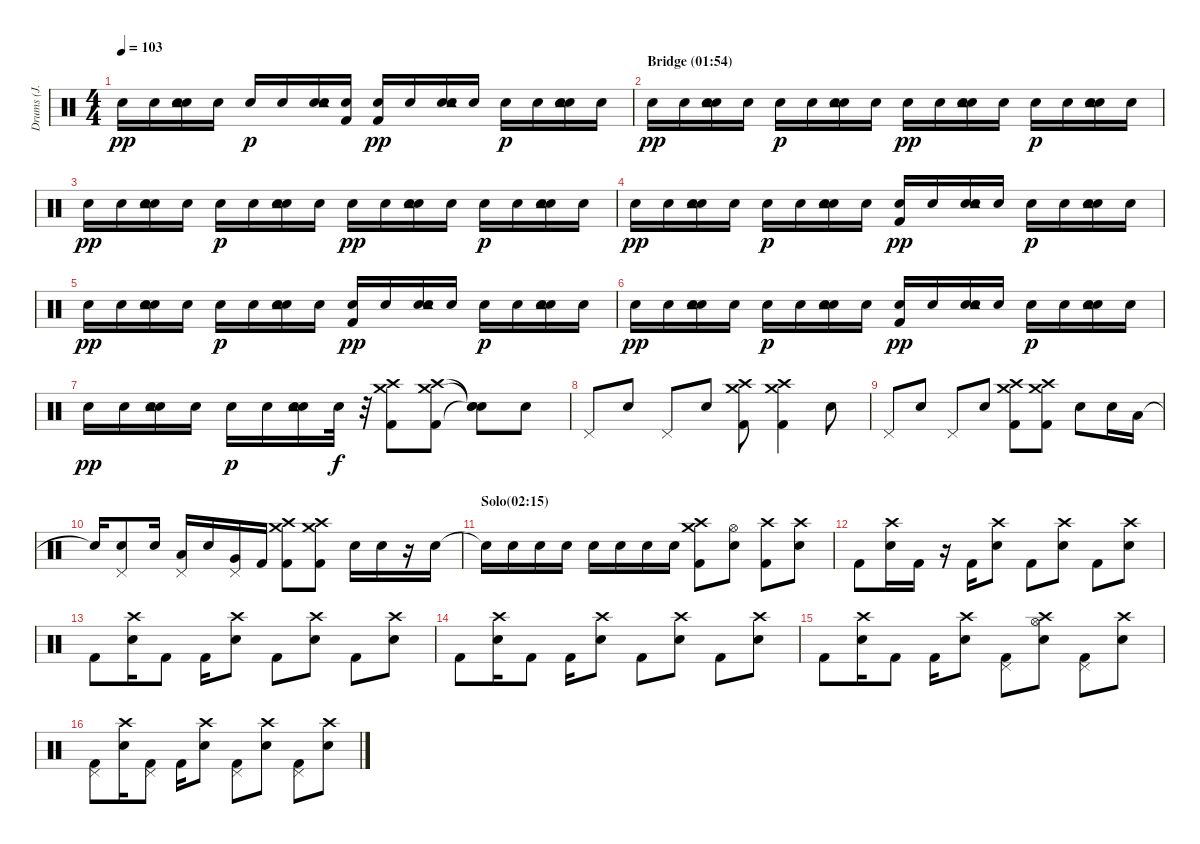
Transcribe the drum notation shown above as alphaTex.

\track ("Drums (J. Cramer)" "Drums (J. ") {instrument percussion}
\staff {score}
\articulation defaults
\ts (4 4)
\tempo 103
\clef neutral
\ks c "Snare (hit) 2".16{dy pp} "Snare (hit) 2".16
("Snare (hit) 2" "Tambourine (hit)" "Electric Snare (hit)").16 "Snare (hit) 2".16 "Snare (hit) 2".16{dy p} "Snare (hit) 2".16 ("Snare (hit) 2" "Tambourine (hit)" "Electric Snare (hit)").16 ("Snare (hit) 2" "Kick (hit) 2").16 ("Snare (hit) 2" "Kick (hit) 2").16{dy pp} "Snare (hit) 2".16 ("Snare (hit) 2" "Tambourine (hit)" "Electric Snare (hit)").16 "Snare (hit) 2".16 "Snare (hit) 2".16{dy p} "Snare (hit) 2".16 ("Snare (hit) 2" "Tambourine (hit)" "Electric Snare (hit)").16 "Snare (hit) 2".16 |
\section ("" "Bridge (01:54)")
"Snare (hit) 2".16{dy pp} "Snare (hit) 2".16 ("Snare (hit) 2" "Tambourine (hit)" "Electric Snare (hit)").16 "Snare (hit) 2".16 "Snare (hit) 2".16{dy p} "Snare (hit) 2".16 ("Snare (hit) 2" "Tambourine (hit)" "Electric Snare (hit)").16 "Snare (hit) 2".16 "Snare (hit) 2".16{dy pp} "Snare (hit) 2".16 ("Snare (hit) 2" "Tambourine (hit)" "Electric Snare (hit)").16 "Snare (hit) 2".16 "Snare (hit) 2".16{dy p} "Snare (hit) 2".16 ("Snare (hit) 2" "Tambourine (hit)" "Electric Snare (hit)").16 "Snare (hit) 2".16 |
"Snare (hit) 2".16{dy pp} "Snare (hit) 2".16 ("Snare (hit) 2" "Tambourine (hit)" "Electric Snare (hit)").16 "Snare (hit) 2".16 "Snare (hit) 2".16{dy p} "Snare (hit) 2".16 ("Snare (hit) 2" "Tambourine (hit)" "Electric Snare (hit)").16 "Snare (hit) 2".16 "Snare (hit) 2".16{dy pp} "Snare (hit) 2".16 ("Snare (hit) 2" "Tambourine (hit)" "Electric Snare (hit)").16 "Snare (hit) 2".16 "Snare (hit) 2".16{dy p} "Snare (hit) 2".16 ("Snare (hit) 2" "Tambourine (hit)" "Electric Snare (hit)").16 "Snare (hit) 2".16 |
"Snare (hit) 2".16{dy pp} "Snare (hit) 2".16 ("Snare (hit) 2" "Tambourine (hit)" "Electric Snare (hit)").16 "Snare (hit) 2".16 "Snare (hit) 2".16{dy p} "Snare (hit) 2".16 ("Snare (hit) 2" "Tambourine (hit)" "Electric Snare (hit)").16 "Snare (hit) 2".16 ("Snare (hit) 2" "Kick (hit) 2").16{dy pp} "Snare (hit) 2".16 ("Snare (hit) 2" "Tambourine (hit)" "Electric Snare (hit)").16 "Snare (hit) 2".16 "Snare (hit) 2".16{dy p} "Snare (hit) 2".16 ("Snare (hit) 2" "Tambourine (hit)" "Electric Snare (hit)").16 "Snare (hit) 2".16 |
"Snare (hit) 2".16{dy pp} "Snare (hit) 2".16 ("Snare (hit) 2" "Tambourine (hit)" "Electric Snare (hit)").16 "Snare (hit) 2".16 "Snare (hit) 2".16{dy p} "Snare (hit) 2".16 ("Snare (hit) 2" "Tambourine (hit)" "Electric Snare (hit)").16 "Snare (hit) 2".16 ("Snare (hit) 2" "Kick (hit) 2").16{dy pp} "Snare (hit) 2".16 ("Snare (hit) 2" "Tambourine (hit)" "Electric Snare (hit)").16 "Snare (hit) 2".16 "Snare (hit) 2".16{dy p} "Snare (hit) 2".16 ("Snare (hit) 2" "Tambourine (hit)" "Electric Snare (hit)").16 "Snare (hit) 2".16 |
"Snare (hit) 2".16{dy pp} "Snare (hit) 2".16 ("Snare (hit) 2" "Tambourine (hit)" "Electric Snare (hit)").16 "Snare (hit) 2".16 "Snare (hit) 2".16{dy p} "Snare (hit) 2".16 ("Snare (hit) 2" "Tambourine (hit)" "Electric Snare (hit)").16 "Snare (hit) 2".16 ("Snare (hit) 2" "Kick (hit) 2").16{dy pp} "Snare (hit) 2".16 ("Snare (hit) 2" "Tambourine (hit)" "Electric Snare (hit)").16 "Snare (hit) 2".16 "Snare (hit) 2".16{dy p} "Snare (hit) 2".16 ("Snare (hit) 2" "Tambourine (hit)" "Electric Snare (hit)").16 "Snare (hit) 2".16 |
"Snare (hit) 2".16{dy pp} "Snare (hit) 2".16 ("Snare (hit) 2" "Tambourine (hit)" "Electric Snare (hit)").16 "Snare (hit) 2".16 "Snare (hit) 2".16{dy p} "Snare (hit) 2".16 ("Snare (hit) 2" "Tambourine (hit)" "Electric Snare (hit)").16 "Electric Snare (hit)".32{dy f} r.32 ("Kick (hit) 2" "Crash medium (hit)" "Crash high (hit)").8 ("Kick (hit) 2" "Crash medium (hit)" "Crash high (hit)").8 ("Snare (hit)"{t} "Snare (hit)"{t} "Snare (hit)"{t}).8 "Electric Snare (hit)".8{bd 120} |
"Pedal Hi-Hat (hit)".8 "Electric Snare (hit)".8{bd 120} "Pedal Hi-Hat (hit)".8 "Electric Snare (hit)".8 ("Kick (hit) 2" "Crash medium (hit)" "Crash high (hit)").8 ("Kick (hit) 2" "Crash medium (hit)" "Crash high (hit)").4 "Electric Snare (hit)".8 |
"Pedal Hi-Hat (hit)".8 "Electric Snare (hit)".8 "Pedal Hi-Hat (hit)".8 "Electric Snare (hit)".8 ("Kick (hit) 2" "Crash medium (hit)" "Crash high (hit)").8 ("Kick (hit) 2" "Crash medium (hit)" "Crash high (hit)").8 "Electric Snare (hit)".8 "Electric Snare (hit)".16 "Low Tom (hit)".16 |
"Electric Snare (hit)"{t}.16 ("Pedal Hi-Hat (hit)" "Electric Snare (hit)").8 "Electric Snare (hit)".16 ("Pedal Hi-Hat (hit)" "Low Tom (hit)").16 "Electric Snare (hit)".16 ("Pedal Hi-Hat (hit)" "Very Low Tom (hit)").16 "Kick (hit) 2".16 ("Kick (hit) 2" "Crash medium (hit)" "Crash high (hit)").8 ("Kick (hit) 2" "Crash medium (hit)" "Crash high (hit)").8 "Electric Snare (hit)".16 "Electric Snare (hit)".16 r.16 "Electric Snare (hit)".16 |
\section ("" "Solo(02:15)")
"Electric Snare (hit)"{t}.16 "Electric Snare (hit)".16 "Electric Snare (hit)".16 "Electric Snare (hit)".16 "Electric Snare (hit)".16 "Electric Snare (hit)".16 "Electric Snare (hit)".16 "Electric Snare (hit)".16 ("Crash medium (hit)" "Kick (hit) 2" "Crash high (hit)").8 ("Hi-Hat (open)" "Electric Snare (hit)").8 ("Kick (hit) 2" "Crash high (hit)").8 ("Electric Snare (hit)" "Crash high (hit)").8 |
"Kick (hit) 2".8 ("Electric Snare (hit)" "Crash high (hit)").16 "Kick (hit) 2".16 r.16 "Kick (hit) 2".16 ("Electric Snare (hit)" "Crash high (hit)").8 "Kick (hit) 2".8 ("Electric Snare (hit)" "Crash high (hit)").8 "Kick (hit) 2".8 ("Electric Snare (hit)" "Crash high (hit)").8 |
"Kick (hit) 2".8 ("Electric Snare (hit)" "Crash high (hit)").16 "Kick (hit) 2".8 "Kick (hit) 2".16 ("Electric Snare (hit)" "Crash high (hit)").8 "Kick (hit) 2".8 ("Electric Snare (hit)" "Crash high (hit)").8 "Kick (hit) 2".8 ("Electric Snare (hit)" "Crash high (hit)").8 |
"Kick (hit) 2".8 ("Electric Snare (hit)" "Crash high (hit)").16 "Kick (hit) 2".8 "Kick (hit) 2".16 ("Electric Snare (hit)" "Crash high (hit)").8 "Kick (hit) 2".8 ("Electric Snare (hit)" "Crash high (hit)").8 "Kick (hit) 2".8 ("Electric Snare (hit)" "Crash high (hit)").8 |
"Kick (hit) 2".8 ("Electric Snare (hit)" "Crash high (hit)").16 "Kick (hit) 2".8 "Kick (hit) 2".16 ("Electric Snare (hit)" "Crash high (hit)").8 ("Pedal Hi-Hat (hit)" "Kick (hit) 2").8 ("Hi-Hat (open)" "Electric Snare (hit)" "Crash high (hit)").8 ("Pedal Hi-Hat (hit)" "Kick (hit) 2").8 ("Electric Snare (hit)" "Crash high (hit)").8 |
("Pedal Hi-Hat (hit)" "Kick (hit) 2").8 ("Electric Snare (hit)" "Crash high (hit)").16 ("Pedal Hi-Hat (hit)" "Kick (hit) 2").8 "Kick (hit) 2".16 ("Electric Snare (hit)" "Crash high (hit)").8 ("Pedal Hi-Hat (hit)" "Kick (hit) 2").8 ("Electric Snare (hit)" "Crash high (hit)").8 ("Pedal Hi-Hat (hit)" "Kick (hit) 2").8 ("Electric Snare (hit)" "Crash high (hit)").8
